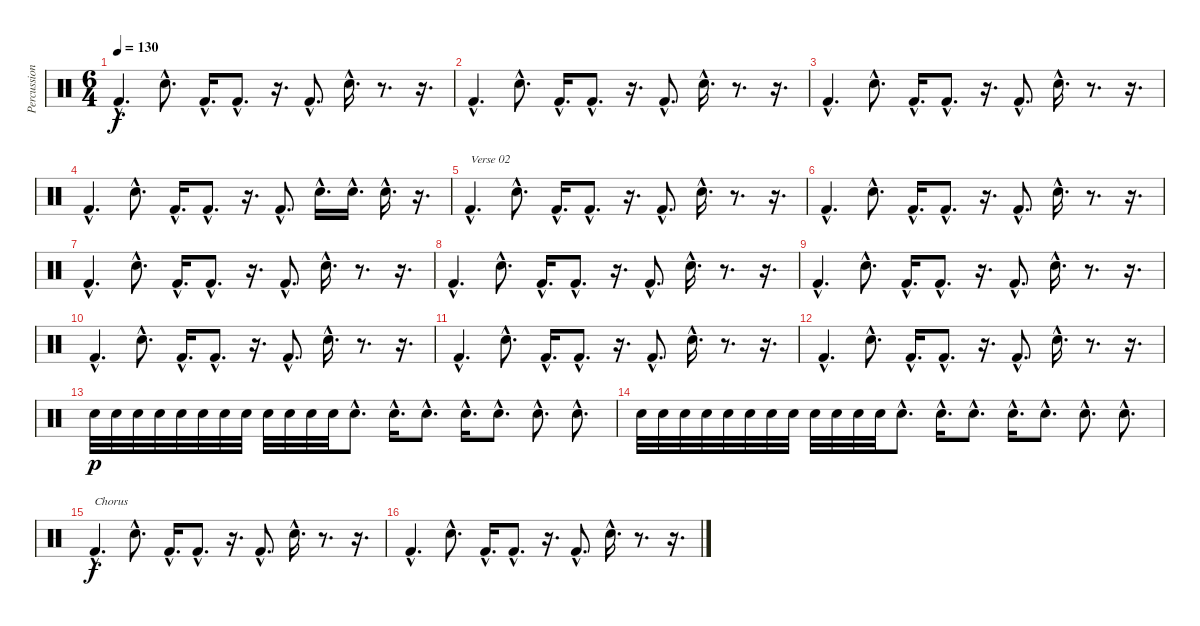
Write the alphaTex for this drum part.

\track ("Percussion" "Percussion") {instrument percussion}
\staff {score}
\articulation defaults
\ts (6 4)
\tempo 130
\clef neutral
\ks c "Kick (hit) 2"{hac}.4{d dy f} "Snare (hit) 2"{hac}.8{d} "Kick (hit) 2"{hac}.16{d} "Kick (hit) 2"{hac}.8{d}
r.16{d} "Kick (hit) 2"{hac}.8{d} "Snare (hit) 2"{hac}.16{d} r.8{d} r.16{d} |
"Kick (hit) 2"{hac}.4{d} "Snare (hit) 2"{hac}.8{d} "Kick (hit) 2"{hac}.16{d} "Kick (hit) 2"{hac}.8{d} r.16{d} "Kick (hit) 2"{hac}.8{d} "Snare (hit) 2"{hac}.16{d} r.8{d} r.16{d} |
"Kick (hit) 2"{hac}.4{d} "Snare (hit) 2"{hac}.8{d} "Kick (hit) 2"{hac}.16{d} "Kick (hit) 2"{hac}.8{d} r.16{d} "Kick (hit) 2"{hac}.8{d} "Snare (hit) 2"{hac}.16{d} r.8{d} r.16{d} |
"Kick (hit) 2"{hac}.4{d} "Snare (hit) 2"{hac}.8{d} "Kick (hit) 2"{hac}.16{d} "Kick (hit) 2"{hac}.8{d} r.16{d} "Kick (hit) 2"{hac}.8{d} "Snare (hit) 2"{hac}.16{d} "Snare (hit) 2"{hac}.16{d} "Snare (hit) 2"{hac}.16{d} r.16{d} |
"Kick (hit) 2"{hac}.4{d txt "Verse 02"} "Snare (hit) 2"{hac}.8{d} "Kick (hit) 2"{hac}.16{d} "Kick (hit) 2"{hac}.8{d} r.16{d} "Kick (hit) 2"{hac}.8{d} "Snare (hit) 2"{hac}.16{d} r.8{d} r.16{d} |
"Kick (hit) 2"{hac}.4{d} "Snare (hit) 2"{hac}.8{d} "Kick (hit) 2"{hac}.16{d} "Kick (hit) 2"{hac}.8{d} r.16{d} "Kick (hit) 2"{hac}.8{d} "Snare (hit) 2"{hac}.16{d} r.8{d} r.16{d} |
"Kick (hit) 2"{hac}.4{d} "Snare (hit) 2"{hac}.8{d} "Kick (hit) 2"{hac}.16{d} "Kick (hit) 2"{hac}.8{d} r.16{d} "Kick (hit) 2"{hac}.8{d} "Snare (hit) 2"{hac}.16{d} r.8{d} r.16{d} |
"Kick (hit) 2"{hac}.4{d} "Snare (hit) 2"{hac}.8{d} "Kick (hit) 2"{hac}.16{d} "Kick (hit) 2"{hac}.8{d} r.16{d} "Kick (hit) 2"{hac}.8{d} "Snare (hit) 2"{hac}.16{d} r.8{d} r.16{d} |
"Kick (hit) 2"{hac}.4{d} "Snare (hit) 2"{hac}.8{d} "Kick (hit) 2"{hac}.16{d} "Kick (hit) 2"{hac}.8{d} r.16{d} "Kick (hit) 2"{hac}.8{d} "Snare (hit) 2"{hac}.16{d} r.8{d} r.16{d} |
"Kick (hit) 2"{hac}.4{d} "Snare (hit) 2"{hac}.8{d} "Kick (hit) 2"{hac}.16{d} "Kick (hit) 2"{hac}.8{d} r.16{d} "Kick (hit) 2"{hac}.8{d} "Snare (hit) 2"{hac}.16{d} r.8{d} r.16{d} |
"Kick (hit) 2"{hac}.4{d} "Snare (hit) 2"{hac}.8{d} "Kick (hit) 2"{hac}.16{d} "Kick (hit) 2"{hac}.8{d} r.16{d} "Kick (hit) 2"{hac}.8{d} "Snare (hit) 2"{hac}.16{d} r.8{d} r.16{d} |
"Kick (hit) 2"{hac}.4{d} "Snare (hit) 2"{hac}.8{d} "Kick (hit) 2"{hac}.16{d} "Kick (hit) 2"{hac}.8{d} r.16{d} "Kick (hit) 2"{hac}.8{d} "Snare (hit) 2"{hac}.16{d} r.8{d} r.16{d} |
"Snare (hit) 2".32{dy p} "Snare (hit) 2".32 "Snare (hit) 2".32 "Snare (hit) 2".32 "Snare (hit) 2".32 "Snare (hit) 2".32 "Snare (hit) 2".32 "Snare (hit) 2".32 "Snare (hit) 2".32 "Snare (hit) 2".32 "Snare (hit) 2".32 "Snare (hit) 2".32 "Snare (hit) 2"{hac}.8{d} "Snare (hit) 2"{hac}.16{d} "Snare (hit) 2"{hac}.8{d} "Snare (hit) 2"{hac}.16{d} "Snare (hit) 2"{hac}.8{d} "Snare (hit) 2"{hac}.8{d} "Snare (hit) 2"{hac}.8{d} |
"Snare (hit) 2".32 "Snare (hit) 2".32 "Snare (hit) 2".32 "Snare (hit) 2".32 "Snare (hit) 2".32 "Snare (hit) 2".32 "Snare (hit) 2".32 "Snare (hit) 2".32 "Snare (hit) 2".32 "Snare (hit) 2".32 "Snare (hit) 2".32 "Snare (hit) 2".32 "Snare (hit) 2"{hac}.8{d} "Snare (hit) 2"{hac}.16{d} "Snare (hit) 2"{hac}.8{d} "Snare (hit) 2"{hac}.16{d} "Snare (hit) 2"{hac}.8{d} "Snare (hit) 2"{hac}.8{d} "Snare (hit) 2"{hac}.8{d} |
"Kick (hit) 2"{hac}.4{d txt "Chorus" dy f} "Snare (hit) 2"{hac}.8{d} "Kick (hit) 2"{hac}.16{d} "Kick (hit) 2"{hac}.8{d} r.16{d} "Kick (hit) 2"{hac}.8{d} "Snare (hit) 2"{hac}.16{d} r.8{d} r.16{d} |
"Kick (hit) 2"{hac}.4{d} "Snare (hit) 2"{hac}.8{d} "Kick (hit) 2"{hac}.16{d} "Kick (hit) 2"{hac}.8{d} r.16{d} "Kick (hit) 2"{hac}.8{d} "Snare (hit) 2"{hac}.16{d} r.8{d} r.16{d}
